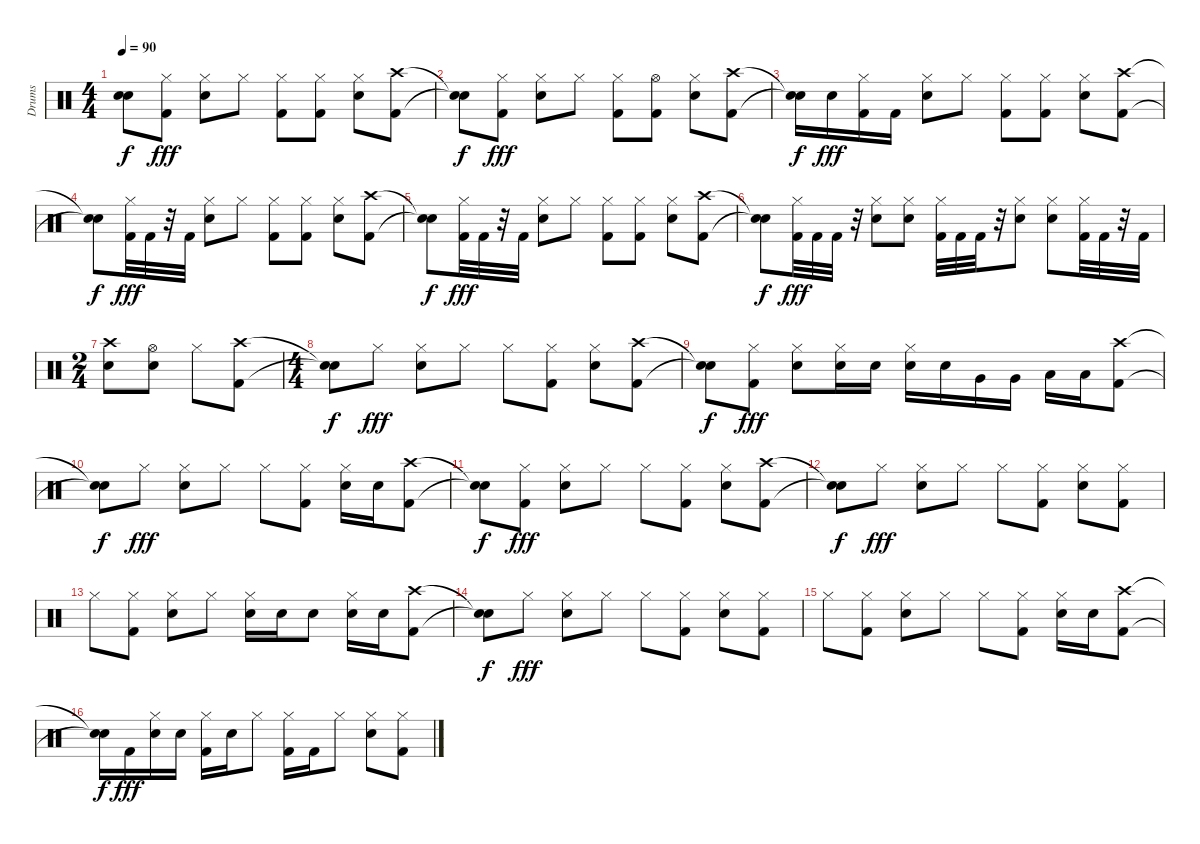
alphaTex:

\track ("Drums" "Drums") {instrument percussion}
\staff {score}
\articulation defaults
\ts (4 4)
\tempo 90
\clef neutral
\ks c
("Snare (hit)"{t} "Snare (hit)"{t}).8{dy f} ("Hi-Hat (closed)" "Kick (hit) 2").8{dy fff} ("Electric Snare (hit)" "Hi-Hat (closed)").8 "Hi-Hat (closed)".8 ("Kick (hit) 2" "Hi-Hat (closed)").8 ("Hi-Hat (closed)" "Kick (hit) 2").8 ("Hi-Hat (closed)" "Electric Snare (hit)").8 ("Kick (hit) 2" "Crash high (hit)").8 |
("Snare (hit)"{t} "Snare (hit)"{t}).8{dy f} ("Kick (hit) 2" "Hi-Hat (closed)").8{dy fff} ("Electric Snare (hit)" "Hi-Hat (closed)").8 "Hi-Hat (closed)".8 ("Kick (hit) 2" "Hi-Hat (closed)").8 ("Kick (hit) 2" "Hi-Hat (open)").8 ("Hi-Hat (closed)" "Electric Snare (hit)").8 ("Kick (hit) 2" "Crash high (hit)").8 |
("Snare (hit)"{t} "Snare (hit)"{t}).16{dy f} "Snare (hit) 2".16{dy fff} ("Hi-Hat (closed)" "Kick (hit) 2").16 "Kick (hit) 2".16 ("Electric Snare (hit)" "Hi-Hat (closed)").8 "Hi-Hat (closed)".8 ("Kick (hit) 2" "Hi-Hat (closed)").8 ("Kick (hit) 2" "Hi-Hat (closed)").8 ("Hi-Hat (closed)" "Electric Snare (hit)").8 ("Kick (hit) 2" "Crash high (hit)").8 |
("Snare (hit)"{t} "Snare (hit)"{t}).8{dy f} ("Kick (hit) 2" "Hi-Hat (closed)").32{dy fff} "Kick (hit) 2".32 r.32 "Kick (hit) 2".32 ("Snare (hit) 2" "Hi-Hat (closed)").8 "Hi-Hat (closed)".8 ("Kick (hit) 2" "Hi-Hat (closed)").8 ("Kick (hit) 2" "Hi-Hat (closed)").8 ("Hi-Hat (closed)" "Snare (hit) 2").8 ("Crash high (hit)" "Kick (hit) 2").8 |
("Snare (hit)"{t} "Snare (hit)"{t}).8{dy f} ("Hi-Hat (closed)" "Kick (hit) 2").32{dy fff} "Kick (hit) 2".32 r.32 "Kick (hit) 2".32 ("Hi-Hat (closed)" "Electric Snare (hit)").8 "Hi-Hat (closed)".8 ("Kick (hit) 2" "Hi-Hat (closed)").8 ("Hi-Hat (closed)" "Kick (hit) 2").8 ("Electric Snare (hit)" "Hi-Hat (closed)").8 ("Crash high (hit)" "Kick (hit) 2").8 |
("Snare (hit)"{t} "Snare (hit)"{t}).8{dy f} ("Kick (hit) 2" "Hi-Hat (closed)").32{dy fff} "Kick (hit) 2".32 "Kick (hit) 2".32 r.32 ("Hi-Hat (closed)" "Snare (hit) 2").8 ("Snare (hit) 2" "Hi-Hat (closed)").8 ("Kick (hit) 2" "Hi-Hat (closed)").32 "Kick (hit) 2".32 "Kick (hit) 2".32 r.32 ("Snare (hit) 2" "Hi-Hat (closed)").8 ("Hi-Hat (closed)" "Snare (hit) 2").8 ("Hi-Hat (closed)" "Kick (hit) 2").32 "Kick (hit) 2".32 r.32 "Kick (hit) 2".32 |
\ts (2 4)
("Electric Snare (hit)" "Crash high (hit)").8 ("Hi-Hat (open)" "Snare (hit) 2").8 "Hi-Hat (closed)".8 ("Kick (hit) 2" "Crash high (hit)").8 |
\ts (4 4)
("Snare (hit)"{t} "Snare (hit)"{t}).8{dy f} "Hi-Hat (closed)".8{dy fff} ("Hi-Hat (closed)" "Electric Snare (hit)").8 "Hi-Hat (closed)".8 "Hi-Hat (closed)".8 ("Hi-Hat (closed)" "Kick (hit) 2").8 ("Hi-Hat (closed)" "Snare (hit) 2").8 ("Crash high (hit)" "Kick (hit) 2").8 |
("Snare (hit)"{t} "Snare (hit)"{t}).8{dy f} ("Kick (hit) 2" "Hi-Hat (closed)").8{dy fff} ("Electric Snare (hit)" "Hi-Hat (closed)").8 ("Snare (hit) 2" "Hi-Hat (closed)").16 "Snare (hit) 2".16 ("Hi-Hat (closed)" "Snare (hit) 2").16 "Snare (hit) 2".16 "Very Low Tom (hit)".16 "Very Low Tom (hit)".16 "Low Floor Tom (hit)".16 "Low Floor Tom (hit)".16 ("Kick (hit) 2" "Crash high (hit)").8 |
("Snare (hit)"{t} "Snare (hit)"{t}).8{dy f} "Hi-Hat (closed)".8{dy fff} ("Hi-Hat (closed)" "Snare (hit) 2").8 "Hi-Hat (closed)".8 "Hi-Hat (closed)".8 ("Kick (hit) 2" "Hi-Hat (closed)").8 ("Electric Snare (hit)" "Hi-Hat (closed)").16 "Snare (hit) 2".16 ("Kick (hit) 2" "Crash high (hit)").8 |
("Snare (hit)"{t} "Snare (hit)"{t}).8{dy f} ("Hi-Hat (closed)" "Kick (hit) 2").8{dy fff} ("Hi-Hat (closed)" "Electric Snare (hit)").8 "Hi-Hat (closed)".8 "Hi-Hat (closed)".8 ("Kick (hit) 2" "Hi-Hat (closed)").8 ("Hi-Hat (closed)" "Electric Snare (hit)").8 ("Kick (hit) 2" "Crash high (hit)").8 |
("Snare (hit)"{t} "Snare (hit)"{t}).8{dy f} "Hi-Hat (closed)".8{dy fff} ("Hi-Hat (closed)" "Snare (hit) 2").8 "Hi-Hat (closed)".8 "Hi-Hat (closed)".8 ("Kick (hit) 2" "Hi-Hat (closed)").8 ("Snare (hit) 2" "Hi-Hat (closed)").8 ("Hi-Hat (closed)" "Kick (hit) 2").8 |
"Hi-Hat (closed)".8 ("Hi-Hat (closed)" "Kick (hit) 2").8 ("Hi-Hat (closed)" "Snare (hit) 2").8 "Hi-Hat (closed)".8 ("Electric Snare (hit)" "Hi-Hat (closed)").16 "Electric Snare (hit)".16 "Electric Snare (hit)".8 ("Hi-Hat (closed)" "Snare (hit) 2").16 "Electric Snare (hit)".16 ("Crash high (hit)" "Kick (hit) 2").8 |
("Snare (hit)"{t} "Snare (hit)"{t}).8{dy f} "Hi-Hat (closed)".8{dy fff} ("Hi-Hat (closed)" "Snare (hit) 2").8 "Hi-Hat (closed)".8 "Hi-Hat (closed)".8 ("Hi-Hat (closed)" "Kick (hit) 2").8 ("Hi-Hat (closed)" "Snare (hit) 2").8 ("Hi-Hat (closed)" "Kick (hit) 2").8 |
"Hi-Hat (closed)".8 ("Hi-Hat (closed)" "Kick (hit) 2").8 ("Hi-Hat (closed)" "Snare (hit) 2").8 "Hi-Hat (closed)".8 "Hi-Hat (closed)".8 ("Kick (hit) 2" "Hi-Hat (closed)").8 ("Snare (hit) 2" "Hi-Hat (closed)").16 "Snare (hit) 2".16 ("Kick (hit) 2" "Crash high (hit)").8 |
("Snare (hit)"{t} "Snare (hit)"{t}).16{dy f} "Kick (hit) 2".16{dy fff} ("Hi-Hat (closed)" "Snare (hit) 2").16 "Electric Snare (hit)".16 ("Hi-Hat (closed)" "Kick (hit) 2").16 "Electric Snare (hit)".16 "Hi-Hat (closed)".8 ("Kick (hit) 2" "Hi-Hat (closed)").16 "Kick (hit) 2".16 "Hi-Hat (closed)".8 ("Hi-Hat (closed)" "Electric Snare (hit)").8 ("Hi-Hat (closed)" "Kick (hit) 2").8
